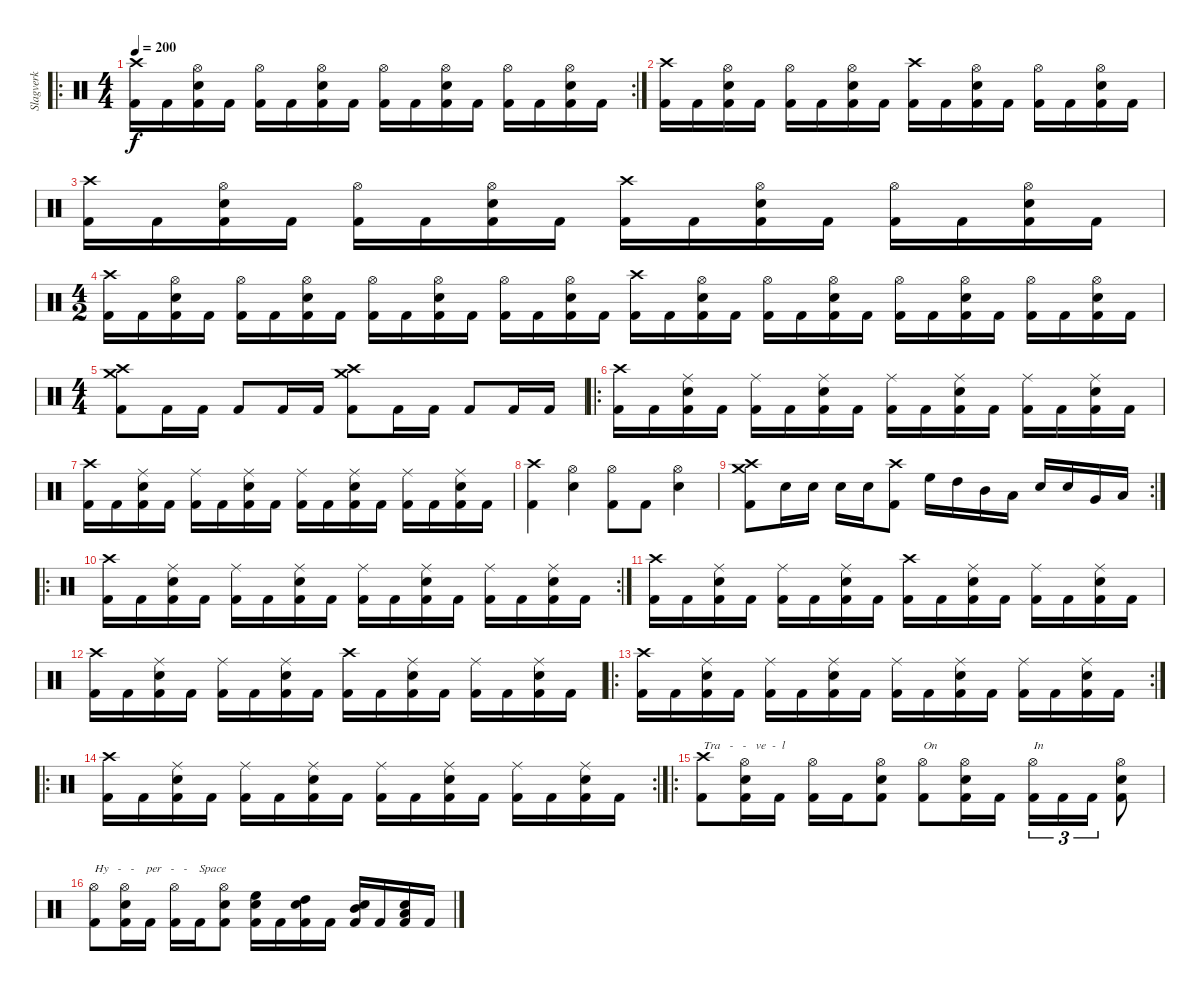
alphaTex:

\track ("Slagverk" "Slagverk") {instrument percussion}
\staff {score}
\articulation defaults
\ro
\rc 2
\ts (4 4)
\tempo 200
\clef neutral
\ks c
("Kick (hit) 2" "Crash high (hit)").16{dy f} "Kick (hit) 2".16 ("Kick (hit) 2" "Electric Snare (hit)" "Hi-Hat (open)").16 "Kick (hit) 2".16 ("Kick (hit) 2" "Hi-Hat (open)").16 "Kick (hit) 2".16 ("Kick (hit) 2" "Electric Snare (hit)" "Hi-Hat (open)").16 "Kick (hit) 2".16 ("Kick (hit) 2" "Hi-Hat (open)").16 "Kick (hit) 2".16 ("Kick (hit) 2" "Electric Snare (hit)" "Hi-Hat (open)").16 "Kick (hit) 2".16 ("Kick (hit) 2" "Hi-Hat (open)").16 "Kick (hit) 2".16 ("Kick (hit) 2" "Electric Snare (hit)" "Hi-Hat (open)").16 "Kick (hit) 2".16 |
("Kick (hit) 2" "Crash high (hit)").16 "Kick (hit) 2".16 ("Kick (hit) 2" "Electric Snare (hit)" "Hi-Hat (open)").16 "Kick (hit) 2".16 ("Kick (hit) 2" "Hi-Hat (open)").16 "Kick (hit) 2".16 ("Kick (hit) 2" "Electric Snare (hit)" "Hi-Hat (open)").16 "Kick (hit) 2".16 ("Kick (hit) 2" "Crash high (hit)").16 "Kick (hit) 2".16 ("Kick (hit) 2" "Electric Snare (hit)" "Hi-Hat (open)").16 "Kick (hit) 2".16 ("Kick (hit) 2" "Hi-Hat (open)").16 "Kick (hit) 2".16 ("Kick (hit) 2" "Electric Snare (hit)" "Hi-Hat (open)").16 "Kick (hit) 2".16 |
("Kick (hit) 2" "Crash high (hit)").16 "Kick (hit) 2".16 ("Kick (hit) 2" "Electric Snare (hit)" "Hi-Hat (open)").16 "Kick (hit) 2".16 ("Kick (hit) 2" "Hi-Hat (open)").16 "Kick (hit) 2".16 ("Kick (hit) 2" "Electric Snare (hit)" "Hi-Hat (open)").16 "Kick (hit) 2".16 ("Kick (hit) 2" "Crash high (hit)").16 "Kick (hit) 2".16 ("Kick (hit) 2" "Electric Snare (hit)" "Hi-Hat (open)").16 "Kick (hit) 2".16 ("Kick (hit) 2" "Hi-Hat (open)").16 "Kick (hit) 2".16 ("Kick (hit) 2" "Electric Snare (hit)" "Hi-Hat (open)").16 "Kick (hit) 2".16 |
\ts (4 2)
("Kick (hit) 2" "Crash high (hit)").16 "Kick (hit) 2".16 ("Kick (hit) 2" "Electric Snare (hit)" "Hi-Hat (open)").16 "Kick (hit) 2".16 ("Kick (hit) 2" "Hi-Hat (open)").16 "Kick (hit) 2".16 ("Kick (hit) 2" "Electric Snare (hit)" "Hi-Hat (open)").16 "Kick (hit) 2".16 ("Kick (hit) 2" "Hi-Hat (open)").16 "Kick (hit) 2".16 ("Kick (hit) 2" "Electric Snare (hit)" "Hi-Hat (open)").16 "Kick (hit) 2".16 ("Kick (hit) 2" "Hi-Hat (open)").16 "Kick (hit) 2".16 ("Kick (hit) 2" "Electric Snare (hit)" "Hi-Hat (open)").16 "Kick (hit) 2".16 ("Kick (hit) 2" "Crash high (hit)").16 "Kick (hit) 2".16 ("Kick (hit) 2" "Electric Snare (hit)" "Hi-Hat (open)").16 "Kick (hit) 2".16 ("Kick (hit) 2" "Hi-Hat (open)").16 "Kick (hit) 2".16 ("Kick (hit) 2" "Electric Snare (hit)" "Hi-Hat (open)").16 "Kick (hit) 2".16 ("Kick (hit) 2" "Hi-Hat (open)").16 "Kick (hit) 2".16 ("Kick (hit) 2" "Electric Snare (hit)" "Hi-Hat (open)").16 "Kick (hit) 2".16 ("Kick (hit) 2" "Hi-Hat (open)").16 "Kick (hit) 2".16 ("Kick (hit) 2" "Electric Snare (hit)" "Hi-Hat (open)").16 "Kick (hit) 2".16 |
\ts (4 4)
("Kick (hit) 2" "Crash high (hit)" "Crash medium (hit)").8 "Kick (hit) 2".16 "Kick (hit) 2".16 "Kick (hit) 2".8 "Kick (hit) 2".16 "Kick (hit) 2".16 ("Kick (hit) 2" "Crash high (hit)" "Crash medium (hit)").8 "Kick (hit) 2".16 "Kick (hit) 2".16 "Kick (hit) 2".8 "Kick (hit) 2".16 "Kick (hit) 2".16 |
\ro
("Kick (hit) 2" "Crash high (hit)").16 "Kick (hit) 2".16 ("Kick (hit) 2" "Electric Snare (hit)" "Ride (middle)").16 "Kick (hit) 2".16 ("Kick (hit) 2" "Ride (middle)").16 "Kick (hit) 2".16 ("Kick (hit) 2" "Electric Snare (hit)" "Ride (middle)").16 "Kick (hit) 2".16 ("Kick (hit) 2" "Ride (middle)").16 "Kick (hit) 2".16 ("Kick (hit) 2" "Electric Snare (hit)" "Ride (middle)").16 "Kick (hit) 2".16 ("Kick (hit) 2" "Ride (middle)").16 "Kick (hit) 2".16 ("Kick (hit) 2" "Electric Snare (hit)" "Ride (middle)").16 "Kick (hit) 2".16 |
("Kick (hit) 2" "Crash high (hit)").16 "Kick (hit) 2".16 ("Kick (hit) 2" "Electric Snare (hit)" "Ride (middle)").16 "Kick (hit) 2".16 ("Kick (hit) 2" "Ride (middle)").16 "Kick (hit) 2".16 ("Kick (hit) 2" "Electric Snare (hit)" "Ride (middle)").16 "Kick (hit) 2".16 ("Kick (hit) 2" "Ride (middle)").16 "Kick (hit) 2".16 ("Kick (hit) 2" "Electric Snare (hit)" "Ride (middle)").16 "Kick (hit) 2".16 ("Kick (hit) 2" "Ride (middle)").16 "Kick (hit) 2".16 ("Kick (hit) 2" "Electric Snare (hit)" "Ride (middle)").16 "Kick (hit) 2".16 |
("Kick (hit) 2" "Crash high (hit)").4 ("Electric Snare (hit)" "Hi-Hat (open)").4 ("Kick (hit) 2" "Hi-Hat (open)").8 "Kick (hit) 2".8 ("Electric Snare (hit)" "Hi-Hat (open)").4 |
\rc 2
("Kick (hit) 2" "Crash high (hit)" "Crash medium (hit)").8 "Electric Snare (hit)".16 "Electric Snare (hit)".16 "Electric Snare (hit)".16 "Electric Snare (hit)".16 ("Kick (hit) 2" "Crash high (hit)").8 "High Floor Tom (hit)".16 "High Tom (hit)".16 "Mid Tom (hit)".16 "Low Tom (hit)".16 "Electric Snare (hit)".16 "Electric Snare (hit)".16 "Very Low Tom (hit)".16 "Low Floor Tom (hit)".16 |
\ro
\rc 2
("Kick (hit) 2" "Crash high (hit)").16 "Kick (hit) 2".16 ("Kick (hit) 2" "Electric Snare (hit)" "Ride (middle)").16 "Kick (hit) 2".16 ("Kick (hit) 2" "Ride (middle)").16 "Kick (hit) 2".16 ("Kick (hit) 2" "Electric Snare (hit)" "Ride (middle)").16 "Kick (hit) 2".16 ("Kick (hit) 2" "Ride (middle)").16 "Kick (hit) 2".16 ("Kick (hit) 2" "Electric Snare (hit)" "Ride (middle)").16 "Kick (hit) 2".16 ("Kick (hit) 2" "Ride (middle)").16 "Kick (hit) 2".16 ("Kick (hit) 2" "Electric Snare (hit)" "Ride (middle)").16 "Kick (hit) 2".16 |
("Kick (hit) 2" "Crash high (hit)").16 "Kick (hit) 2".16 ("Kick (hit) 2" "Electric Snare (hit)" "Ride (middle)").16 "Kick (hit) 2".16 ("Kick (hit) 2" "Ride (middle)").16 "Kick (hit) 2".16 ("Kick (hit) 2" "Electric Snare (hit)" "Ride (middle)").16 "Kick (hit) 2".16 ("Kick (hit) 2" "Crash high (hit)").16 "Kick (hit) 2".16 ("Kick (hit) 2" "Electric Snare (hit)" "Ride (middle)").16 "Kick (hit) 2".16 ("Kick (hit) 2" "Ride (middle)").16 "Kick (hit) 2".16 ("Kick (hit) 2" "Electric Snare (hit)" "Ride (middle)").16 "Kick (hit) 2".16 |
("Kick (hit) 2" "Crash high (hit)").16 "Kick (hit) 2".16 ("Kick (hit) 2" "Electric Snare (hit)" "Ride (middle)").16 "Kick (hit) 2".16 ("Kick (hit) 2" "Ride (middle)").16 "Kick (hit) 2".16 ("Kick (hit) 2" "Electric Snare (hit)" "Ride (middle)").16 "Kick (hit) 2".16 ("Kick (hit) 2" "Crash high (hit)").16 "Kick (hit) 2".16 ("Kick (hit) 2" "Electric Snare (hit)" "Ride (middle)").16 "Kick (hit) 2".16 ("Kick (hit) 2" "Ride (middle)").16 "Kick (hit) 2".16 ("Kick (hit) 2" "Electric Snare (hit)" "Ride (middle)").16 "Kick (hit) 2".16 |
\ro
\rc 2
("Kick (hit) 2" "Crash high (hit)").16 "Kick (hit) 2".16 ("Kick (hit) 2" "Electric Snare (hit)" "Ride (middle)").16 "Kick (hit) 2".16 ("Kick (hit) 2" "Ride (middle)").16 "Kick (hit) 2".16 ("Kick (hit) 2" "Electric Snare (hit)" "Ride (middle)").16 "Kick (hit) 2".16 ("Kick (hit) 2" "Ride (middle)").16 "Kick (hit) 2".16 ("Kick (hit) 2" "Electric Snare (hit)" "Ride (middle)").16 "Kick (hit) 2".16 ("Kick (hit) 2" "Ride (middle)").16 "Kick (hit) 2".16 ("Kick (hit) 2" "Electric Snare (hit)" "Ride (middle)").16 "Kick (hit) 2".16 |
\ro
\rc 2
("Kick (hit) 2" "Crash high (hit)").16 "Kick (hit) 2".16 ("Kick (hit) 2" "Electric Snare (hit)" "Ride (middle)").16 "Kick (hit) 2".16 ("Kick (hit) 2" "Ride (middle)").16 "Kick (hit) 2".16 ("Kick (hit) 2" "Electric Snare (hit)" "Ride (middle)").16 "Kick (hit) 2".16 ("Kick (hit) 2" "Ride (middle)").16 "Kick (hit) 2".16 ("Kick (hit) 2" "Electric Snare (hit)" "Ride (middle)").16 "Kick (hit) 2".16 ("Kick (hit) 2" "Ride (middle)").16 "Kick (hit) 2".16 ("Kick (hit) 2" "Electric Snare (hit)" "Ride (middle)").16 "Kick (hit) 2".16 |
\ro
("Kick (hit) 2" "Crash high (hit)").8{txt "Tra   -   -   ve  -  l"} ("Kick (hit) 2" "Electric Snare (hit)" "Hi-Hat (open)").16 "Kick (hit) 2".16 ("Kick (hit) 2" "Hi-Hat (open)").16 "Kick (hit) 2".16 ("Kick (hit) 2" "Electric Snare (hit)" "Hi-Hat (open)").8 ("Kick (hit) 2" "Hi-Hat (open)").8{txt "On"} ("Kick (hit) 2" "Electric Snare (hit)" "Hi-Hat (open)").16 "Kick (hit) 2".16 ("Kick (hit) 2" "Hi-Hat (open)").16{tu (3 2) txt "In"} "Kick (hit) 2".16{tu (3 2)} "Kick (hit) 2".16{tu (3 2)} ("Kick (hit) 2" "Electric Snare (hit)" "Hi-Hat (open)").8 |
("Kick (hit) 2" "Hi-Hat (open)").8{txt "Hy   -   -    per   -   -    Space"} ("Kick (hit) 2" "Electric Snare (hit)" "Hi-Hat (open)").16 "Kick (hit) 2".16 ("Kick (hit) 2" "Hi-Hat (open)").16 "Kick (hit) 2".16 ("Kick (hit) 2" "Electric Snare (hit)" "Hi-Hat (open)").8 ("Kick (hit) 2" "Electric Snare (hit)" "High Floor Tom (hit)").16 "Kick (hit) 2".16 ("Kick (hit) 2" "Electric Snare (hit)" "High Tom (hit)").16 "Kick (hit) 2".16 ("Kick (hit) 2" "Electric Snare (hit)" "Mid Tom (hit)").16 "Kick (hit) 2".16 ("Kick (hit) 2" "Electric Snare (hit)" "Low Tom (hit)").16 "Kick (hit) 2".16
